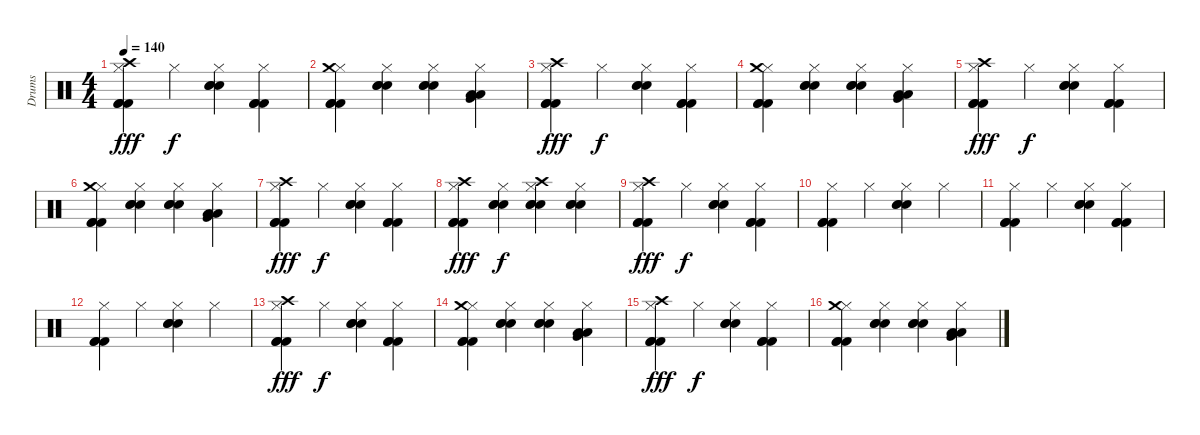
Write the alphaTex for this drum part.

\track ("Drums" "Drums") {instrument percussion}
\staff {score}
\articulation defaults
\ts (4 4)
\tempo 140
\clef neutral
\ks c
("Hi-Hat (closed)" "Kick (hit) 2" "Kick (hit) 2" "Kick (hit) 2" "Crash high (hit)").4{dy fff} "Hi-Hat (closed)".4{dy f} ("Hi-Hat (closed)" "Snare (hit) 2" "Snare (hit) 2" "Snare (hit) 2").4 ("Hi-Hat (closed)" "Kick (hit) 2" "Kick (hit) 2" "Kick (hit) 2").4 |
("Hi-Hat (closed)" "Kick (hit) 2" "Kick (hit) 2" "Kick (hit) 2" "Crash medium (hit)").4 ("Hi-Hat (closed)" "Snare (hit) 2" "Snare (hit) 2" "Snare (hit) 2").4 ("Hi-Hat (closed)" "Snare (hit) 2" "Snare (hit) 2" "Snare (hit) 2").4 ("Hi-Hat (closed)" "Low Tom (hit)" "Very Low Tom (hit)" "Low Floor Tom (hit)").4 |
("Hi-Hat (closed)" "Kick (hit) 2" "Kick (hit) 2" "Kick (hit) 2" "Crash high (hit)").4{dy fff} "Hi-Hat (closed)".4{dy f} ("Hi-Hat (closed)" "Snare (hit) 2" "Snare (hit) 2" "Snare (hit) 2").4 ("Hi-Hat (closed)" "Kick (hit) 2" "Kick (hit) 2" "Kick (hit) 2").4 |
("Hi-Hat (closed)" "Kick (hit) 2" "Kick (hit) 2" "Kick (hit) 2" "Crash medium (hit)").4 ("Hi-Hat (closed)" "Snare (hit) 2" "Snare (hit) 2" "Snare (hit) 2").4 ("Hi-Hat (closed)" "Snare (hit) 2" "Snare (hit) 2" "Snare (hit) 2").4 ("Hi-Hat (closed)" "Low Tom (hit)" "Very Low Tom (hit)" "Low Floor Tom (hit)").4 |
("Hi-Hat (closed)" "Kick (hit) 2" "Kick (hit) 2" "Kick (hit) 2" "Crash high (hit)").4{dy fff} "Hi-Hat (closed)".4{dy f} ("Hi-Hat (closed)" "Snare (hit) 2" "Snare (hit) 2" "Snare (hit) 2").4 ("Hi-Hat (closed)" "Kick (hit) 2" "Kick (hit) 2" "Kick (hit) 2").4 |
("Hi-Hat (closed)" "Kick (hit) 2" "Kick (hit) 2" "Kick (hit) 2" "Crash medium (hit)").4 ("Hi-Hat (closed)" "Snare (hit) 2" "Snare (hit) 2" "Snare (hit) 2").4 ("Hi-Hat (closed)" "Snare (hit) 2" "Snare (hit) 2" "Snare (hit) 2").4 ("Hi-Hat (closed)" "Low Tom (hit)" "Very Low Tom (hit)" "Low Floor Tom (hit)").4 |
("Hi-Hat (closed)" "Kick (hit) 2" "Kick (hit) 2" "Kick (hit) 2" "Crash high (hit)").4{dy fff} "Hi-Hat (closed)".4{dy f} ("Hi-Hat (closed)" "Snare (hit) 2" "Snare (hit) 2" "Snare (hit) 2").4 ("Hi-Hat (closed)" "Kick (hit) 2" "Kick (hit) 2" "Kick (hit) 2").4 |
("Hi-Hat (closed)" "Kick (hit) 2" "Kick (hit) 2" "Kick (hit) 2" "Crash high (hit)").4{dy fff} ("Hi-Hat (closed)" "Snare (hit) 2" "Snare (hit) 2" "Snare (hit) 2").4{dy f} ("Hi-Hat (closed)" "Snare (hit) 2" "Snare (hit) 2" "Snare (hit) 2" "Crash high (hit)").4 ("Hi-Hat (closed)" "Snare (hit) 2" "Snare (hit) 2" "Snare (hit) 2").4 |
("Hi-Hat (closed)" "Kick (hit) 2" "Kick (hit) 2" "Kick (hit) 2" "Crash high (hit)").4{dy fff} "Hi-Hat (closed)".4{dy f} ("Hi-Hat (closed)" "Snare (hit) 2" "Snare (hit) 2" "Snare (hit) 2").4 ("Hi-Hat (closed)" "Kick (hit) 2" "Kick (hit) 2" "Kick (hit) 2").4 |
("Hi-Hat (closed)" "Kick (hit) 2" "Kick (hit) 2" "Kick (hit) 2").4 "Hi-Hat (closed)".4 ("Hi-Hat (closed)" "Snare (hit) 2" "Snare (hit) 2" "Snare (hit) 2").4 "Hi-Hat (closed)".4 |
("Hi-Hat (closed)" "Kick (hit) 2" "Kick (hit) 2" "Kick (hit) 2").4 "Hi-Hat (closed)".4 ("Hi-Hat (closed)" "Snare (hit) 2" "Snare (hit) 2" "Snare (hit) 2").4 ("Hi-Hat (closed)" "Kick (hit) 2" "Kick (hit) 2" "Kick (hit) 2").4 |
("Hi-Hat (closed)" "Kick (hit) 2" "Kick (hit) 2" "Kick (hit) 2").4 "Hi-Hat (closed)".4 ("Hi-Hat (closed)" "Snare (hit) 2" "Snare (hit) 2" "Snare (hit) 2").4 "Hi-Hat (closed)".4 |
("Hi-Hat (closed)" "Kick (hit) 2" "Kick (hit) 2" "Kick (hit) 2" "Crash high (hit)").4{dy fff} "Hi-Hat (closed)".4{dy f} ("Hi-Hat (closed)" "Snare (hit) 2" "Snare (hit) 2" "Snare (hit) 2").4 ("Hi-Hat (closed)" "Kick (hit) 2" "Kick (hit) 2" "Kick (hit) 2").4 |
("Hi-Hat (closed)" "Kick (hit) 2" "Kick (hit) 2" "Kick (hit) 2" "Crash medium (hit)").4 ("Hi-Hat (closed)" "Snare (hit) 2" "Snare (hit) 2" "Snare (hit) 2").4 ("Hi-Hat (closed)" "Snare (hit) 2" "Snare (hit) 2" "Snare (hit) 2").4 ("Hi-Hat (closed)" "Low Tom (hit)" "Very Low Tom (hit)" "Low Floor Tom (hit)").4 |
("Hi-Hat (closed)" "Kick (hit) 2" "Kick (hit) 2" "Kick (hit) 2" "Crash high (hit)").4{dy fff} "Hi-Hat (closed)".4{dy f} ("Hi-Hat (closed)" "Snare (hit) 2" "Snare (hit) 2" "Snare (hit) 2").4 ("Hi-Hat (closed)" "Kick (hit) 2" "Kick (hit) 2" "Kick (hit) 2").4 |
("Hi-Hat (closed)" "Kick (hit) 2" "Kick (hit) 2" "Kick (hit) 2" "Crash medium (hit)").4 ("Hi-Hat (closed)" "Snare (hit) 2" "Snare (hit) 2" "Snare (hit) 2").4 ("Hi-Hat (closed)" "Snare (hit) 2" "Snare (hit) 2" "Snare (hit) 2").4 ("Hi-Hat (closed)" "Low Tom (hit)" "Very Low Tom (hit)" "Low Floor Tom (hit)").4
